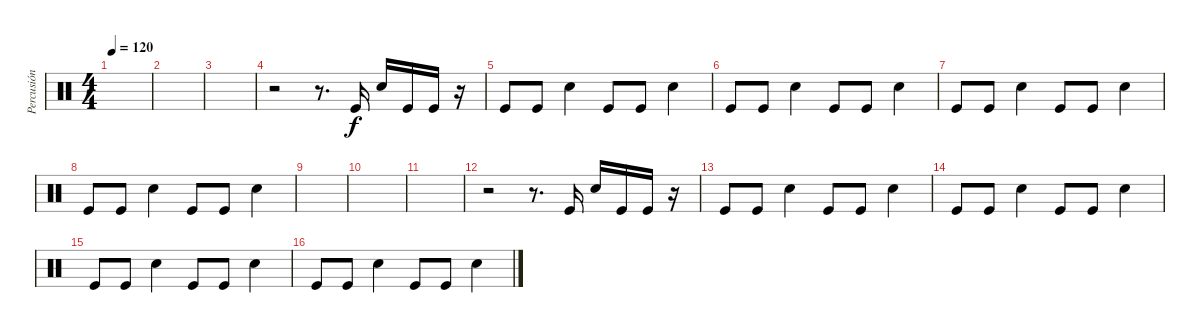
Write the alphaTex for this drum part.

\track ("Percusión" "Percusión") {instrument percussion}
\staff {score}
\articulation defaults
\ts (4 4)
\tempo 120
\clef neutral
\ks c
|
|
|
r.2 r.8{d} "Kick (hit)".16 "Snare (hit) 2".16 "Kick (hit)".16 "Kick (hit)".16 r.16 |
"Kick (hit)".8 "Kick (hit)".8 "Snare (hit) 2".4 "Kick (hit)".8 "Kick (hit)".8 "Snare (hit) 2".4 |
"Kick (hit)".8 "Kick (hit)".8 "Snare (hit) 2".4 "Kick (hit)".8 "Kick (hit)".8 "Snare (hit) 2".4 |
"Kick (hit)".8 "Kick (hit)".8 "Snare (hit) 2".4 "Kick (hit)".8 "Kick (hit)".8 "Snare (hit) 2".4 |
"Kick (hit)".8 "Kick (hit)".8 "Snare (hit) 2".4 "Kick (hit)".8 "Kick (hit)".8 "Snare (hit) 2".4 |
|
|
|
r.2 r.8{d} "Kick (hit)".16 "Snare (hit) 2".16 "Kick (hit)".16 "Kick (hit)".16 r.16 |
"Kick (hit)".8 "Kick (hit)".8 "Snare (hit) 2".4 "Kick (hit)".8 "Kick (hit)".8 "Snare (hit) 2".4 |
"Kick (hit)".8 "Kick (hit)".8 "Snare (hit) 2".4 "Kick (hit)".8 "Kick (hit)".8 "Snare (hit) 2".4 |
"Kick (hit)".8 "Kick (hit)".8 "Snare (hit) 2".4 "Kick (hit)".8 "Kick (hit)".8 "Snare (hit) 2".4 |
"Kick (hit)".8 "Kick (hit)".8 "Snare (hit) 2".4 "Kick (hit)".8 "Kick (hit)".8 "Snare (hit) 2".4
